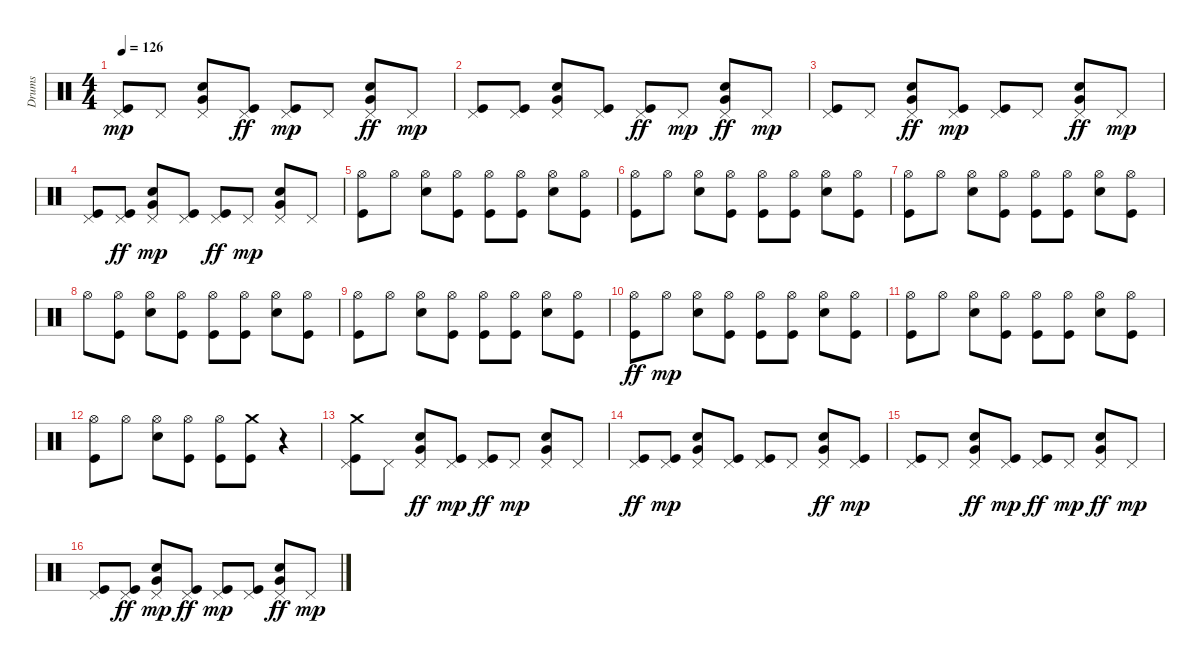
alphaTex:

\track ("Drums" "Drums") {instrument percussion}
\staff {score}
\articulation defaults
\ts (4 4)
\tempo 126
\clef neutral
\ks c
("Pedal Hi-Hat (hit)" "Kick (hit)").8{dy mp} "Pedal Hi-Hat (hit)".8 ("Pedal Hi-Hat (hit)" "Electric Snare (hit)" "Very Low Tom (hit)").8 ("Pedal Hi-Hat (hit)" "Kick (hit)").8{dy ff} ("Pedal Hi-Hat (hit)" "Kick (hit)").8{dy mp} "Pedal Hi-Hat (hit)".8 ("Pedal Hi-Hat (hit)" "Very Low Tom (hit)" "Electric Snare (hit)").8{dy ff} "Pedal Hi-Hat (hit)".8{dy mp} |
("Pedal Hi-Hat (hit)" "Kick (hit)").8 ("Pedal Hi-Hat (hit)" "Kick (hit)").8 ("Very Low Tom (hit)" "Pedal Hi-Hat (hit)" "Electric Snare (hit)").8 ("Pedal Hi-Hat (hit)" "Kick (hit)").8 ("Pedal Hi-Hat (hit)" "Kick (hit)").8{dy ff} "Pedal Hi-Hat (hit)".8{dy mp} ("Pedal Hi-Hat (hit)" "Very Low Tom (hit)" "Electric Snare (hit)").8{dy ff} "Pedal Hi-Hat (hit)".8{dy mp} |
("Pedal Hi-Hat (hit)" "Kick (hit)").8 "Pedal Hi-Hat (hit)".8 ("Pedal Hi-Hat (hit)" "Electric Snare (hit)" "Very Low Tom (hit)").8{dy ff} ("Pedal Hi-Hat (hit)" "Kick (hit)").8{dy mp} ("Pedal Hi-Hat (hit)" "Kick (hit)").8 "Pedal Hi-Hat (hit)".8 ("Pedal Hi-Hat (hit)" "Very Low Tom (hit)" "Electric Snare (hit)").8{dy ff} "Pedal Hi-Hat (hit)".8{dy mp} |
("Pedal Hi-Hat (hit)" "Kick (hit)").8 ("Pedal Hi-Hat (hit)" "Kick (hit)").8{dy ff} ("Very Low Tom (hit)" "Pedal Hi-Hat (hit)" "Electric Snare (hit)").8{dy mp} ("Pedal Hi-Hat (hit)" "Kick (hit)").8 ("Pedal Hi-Hat (hit)" "Kick (hit)").8{dy ff} "Pedal Hi-Hat (hit)".8{dy mp} ("Pedal Hi-Hat (hit)" "Very Low Tom (hit)" "Electric Snare (hit)").8 "Pedal Hi-Hat (hit)".8 |
("Hi-Hat (open)" "Kick (hit)").8 "Hi-Hat (open)".8 ("Hi-Hat (open)" "Electric Snare (hit)").8 ("Hi-Hat (open)" "Kick (hit)").8 ("Hi-Hat (open)" "Kick (hit)").8 ("Hi-Hat (open)" "Kick (hit)").8 ("Hi-Hat (open)" "Electric Snare (hit)").8 ("Hi-Hat (open)" "Kick (hit)").8 |
("Hi-Hat (open)" "Kick (hit)").8 "Hi-Hat (open)".8 ("Hi-Hat (open)" "Electric Snare (hit)").8 ("Hi-Hat (open)" "Kick (hit)").8 ("Hi-Hat (open)" "Kick (hit)").8 ("Hi-Hat (open)" "Kick (hit)").8 ("Hi-Hat (open)" "Electric Snare (hit)").8 ("Hi-Hat (open)" "Kick (hit)").8 |
("Hi-Hat (open)" "Kick (hit)").8 "Hi-Hat (open)".8 ("Hi-Hat (open)" "Electric Snare (hit)").8 ("Hi-Hat (open)" "Kick (hit)").8 ("Hi-Hat (open)" "Kick (hit)").8 ("Hi-Hat (open)" "Kick (hit)").8 ("Hi-Hat (open)" "Electric Snare (hit)").8 ("Hi-Hat (open)" "Kick (hit)").8 |
"Hi-Hat (open)".8 ("Hi-Hat (open)" "Kick (hit)").8 ("Hi-Hat (open)" "Electric Snare (hit)").8 ("Kick (hit)" "Hi-Hat (open)").8 ("Hi-Hat (open)" "Kick (hit)").8 ("Kick (hit)" "Hi-Hat (open)").8 ("Hi-Hat (open)" "Electric Snare (hit)").8 ("Hi-Hat (open)" "Kick (hit)").8 |
("Hi-Hat (open)" "Kick (hit)").8 "Hi-Hat (open)".8 ("Hi-Hat (open)" "Electric Snare (hit)").8 ("Hi-Hat (open)" "Kick (hit)").8 ("Hi-Hat (open)" "Kick (hit)").8 ("Hi-Hat (open)" "Kick (hit)").8 ("Hi-Hat (open)" "Electric Snare (hit)").8 ("Hi-Hat (open)" "Kick (hit)").8 |
("Hi-Hat (open)" "Kick (hit)").8{dy ff} "Hi-Hat (open)".8{dy mp} ("Hi-Hat (open)" "Electric Snare (hit)").8 ("Hi-Hat (open)" "Kick (hit)").8 ("Hi-Hat (open)" "Kick (hit)").8 ("Hi-Hat (open)" "Kick (hit)").8 ("Hi-Hat (open)" "Electric Snare (hit)").8 ("Hi-Hat (open)" "Kick (hit)").8 |
("Hi-Hat (open)" "Kick (hit)").8 "Hi-Hat (open)".8 ("Hi-Hat (open)" "Electric Snare (hit)").8 ("Hi-Hat (open)" "Kick (hit)").8 ("Hi-Hat (open)" "Kick (hit)").8 ("Hi-Hat (open)" "Kick (hit)").8 ("Hi-Hat (open)" "Electric Snare (hit)").8 ("Hi-Hat (open)" "Kick (hit)").8 |
("Hi-Hat (open)" "Kick (hit)").8 "Hi-Hat (open)".8 ("Hi-Hat (open)" "Electric Snare (hit)").8 ("Hi-Hat (open)" "Kick (hit)").8 ("Hi-Hat (open)" "Kick (hit)").8 ("Crash medium (hit)" "Kick (hit)").8 r.4 |
("Pedal Hi-Hat (hit)" "Crash medium (hit)" "Kick (hit)").8 "Pedal Hi-Hat (hit)".8 ("Pedal Hi-Hat (hit)" "Very Low Tom (hit)" "Electric Snare (hit)").8{dy ff} ("Pedal Hi-Hat (hit)" "Kick (hit)").8{dy mp} ("Pedal Hi-Hat (hit)" "Kick (hit)").8{dy ff} "Pedal Hi-Hat (hit)".8{dy mp} ("Pedal Hi-Hat (hit)" "Very Low Tom (hit)" "Electric Snare (hit)").8 "Pedal Hi-Hat (hit)".8 |
("Pedal Hi-Hat (hit)" "Kick (hit)").8{dy ff} ("Pedal Hi-Hat (hit)" "Kick (hit)").8{dy mp} ("Very Low Tom (hit)" "Pedal Hi-Hat (hit)" "Electric Snare (hit)").8 ("Pedal Hi-Hat (hit)" "Kick (hit)").8 ("Pedal Hi-Hat (hit)" "Kick (hit)").8 "Pedal Hi-Hat (hit)".8 ("Pedal Hi-Hat (hit)" "Very Low Tom (hit)" "Electric Snare (hit)").8{dy ff} ("Kick (hit)" "Pedal Hi-Hat (hit)").8{dy mp} |
("Pedal Hi-Hat (hit)" "Kick (hit)").8 "Pedal Hi-Hat (hit)".8 ("Pedal Hi-Hat (hit)" "Electric Snare (hit)" "Very Low Tom (hit)").8{dy ff} ("Pedal Hi-Hat (hit)" "Kick (hit)").8{dy mp} ("Pedal Hi-Hat (hit)" "Kick (hit)").8{dy ff} "Pedal Hi-Hat (hit)".8{dy mp} ("Pedal Hi-Hat (hit)" "Very Low Tom (hit)" "Electric Snare (hit)").8{dy ff} "Pedal Hi-Hat (hit)".8{dy mp} |
("Pedal Hi-Hat (hit)" "Kick (hit)").8 ("Pedal Hi-Hat (hit)" "Kick (hit)").8{dy ff} ("Very Low Tom (hit)" "Pedal Hi-Hat (hit)" "Electric Snare (hit)").8{dy mp} ("Pedal Hi-Hat (hit)" "Kick (hit)").8{dy ff} ("Pedal Hi-Hat (hit)" "Kick (hit)").8{dy mp} ("Kick (hit)" "Pedal Hi-Hat (hit)").8 ("Pedal Hi-Hat (hit)" "Very Low Tom (hit)" "Electric Snare (hit)").8{dy ff} "Pedal Hi-Hat (hit)".8{dy mp}
